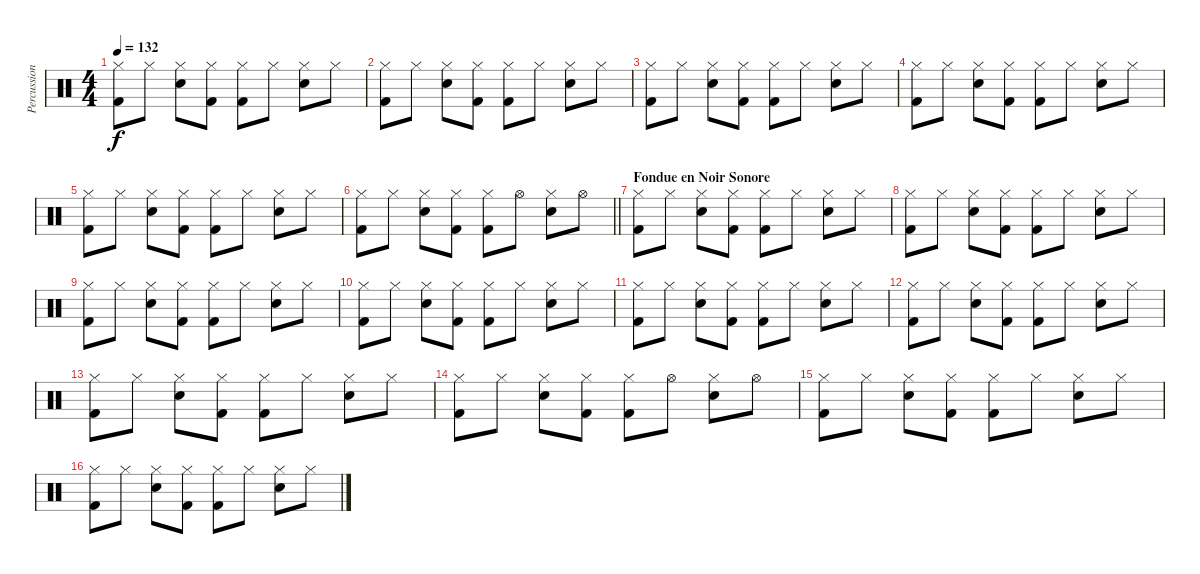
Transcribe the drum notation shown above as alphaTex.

\track ("Percussions" "Percussion") {instrument percussion}
\staff {score}
\articulation defaults
\ts (4 4)
\tempo 132
\clef neutral
\ks c
("Hi-Hat (closed)" "Kick (hit) 2").8{dy f} "Hi-Hat (closed)".8 ("Hi-Hat (closed)" "Snare (hit) 2").8 ("Hi-Hat (closed)" "Kick (hit) 2").8 ("Hi-Hat (closed)" "Kick (hit) 2").8 "Hi-Hat (closed)".8 ("Hi-Hat (closed)" "Snare (hit) 2").8 "Hi-Hat (closed)".8 |
("Hi-Hat (closed)" "Kick (hit) 2").8 "Hi-Hat (closed)".8 ("Hi-Hat (closed)" "Snare (hit) 2").8 ("Hi-Hat (closed)" "Kick (hit) 2").8 ("Hi-Hat (closed)" "Kick (hit) 2").8 "Hi-Hat (closed)".8 ("Hi-Hat (closed)" "Snare (hit) 2").8 "Hi-Hat (closed)".8 |
("Hi-Hat (closed)" "Kick (hit) 2").8 "Hi-Hat (closed)".8 ("Hi-Hat (closed)" "Snare (hit) 2").8 ("Hi-Hat (closed)" "Kick (hit) 2").8 ("Hi-Hat (closed)" "Kick (hit) 2").8 "Hi-Hat (closed)".8 ("Hi-Hat (closed)" "Snare (hit) 2").8 "Hi-Hat (closed)".8 |
("Hi-Hat (closed)" "Kick (hit) 2").8 "Hi-Hat (closed)".8 ("Hi-Hat (closed)" "Snare (hit) 2").8 ("Hi-Hat (closed)" "Kick (hit) 2").8 ("Hi-Hat (closed)" "Kick (hit) 2").8 "Hi-Hat (closed)".8 ("Hi-Hat (closed)" "Snare (hit) 2").8 "Hi-Hat (closed)".8 |
("Hi-Hat (closed)" "Kick (hit) 2").8 "Hi-Hat (closed)".8 ("Hi-Hat (closed)" "Snare (hit) 2").8 ("Hi-Hat (closed)" "Kick (hit) 2").8 ("Hi-Hat (closed)" "Kick (hit) 2").8 "Hi-Hat (closed)".8 ("Hi-Hat (closed)" "Snare (hit) 2").8 "Hi-Hat (closed)".8 |
\barLineRight lightlight
("Hi-Hat (closed)" "Kick (hit) 2").8 "Hi-Hat (closed)".8 ("Hi-Hat (closed)" "Snare (hit) 2").8 ("Hi-Hat (closed)" "Kick (hit) 2").8 ("Hi-Hat (closed)" "Kick (hit) 2").8 "Hi-Hat (open)".8 ("Hi-Hat (closed)" "Snare (hit) 2").8 "Hi-Hat (open)".8 |
\section ("" "Fondue en Noir Sonore")
("Hi-Hat (closed)" "Kick (hit) 2").8{volume 10} "Hi-Hat (closed)".8 ("Hi-Hat (closed)" "Snare (hit) 2").8 ("Hi-Hat (closed)" "Kick (hit) 2").8 ("Hi-Hat (closed)" "Kick (hit) 2").8 "Hi-Hat (closed)".8 ("Hi-Hat (closed)" "Snare (hit) 2").8 "Hi-Hat (closed)".8 |
("Hi-Hat (closed)" "Kick (hit) 2").8 "Hi-Hat (closed)".8 ("Hi-Hat (closed)" "Snare (hit) 2").8 ("Hi-Hat (closed)" "Kick (hit) 2").8 ("Hi-Hat (closed)" "Kick (hit) 2").8 "Hi-Hat (closed)".8 ("Hi-Hat (closed)" "Snare (hit) 2").8 "Hi-Hat (closed)".8 |
("Hi-Hat (closed)" "Kick (hit) 2").8 "Hi-Hat (closed)".8 ("Hi-Hat (closed)" "Snare (hit) 2").8 ("Hi-Hat (closed)" "Kick (hit) 2").8 ("Hi-Hat (closed)" "Kick (hit) 2").8 "Hi-Hat (closed)".8 ("Hi-Hat (closed)" "Snare (hit) 2").8 "Hi-Hat (closed)".8 |
("Hi-Hat (closed)" "Kick (hit) 2").8 "Hi-Hat (closed)".8 ("Hi-Hat (closed)" "Snare (hit) 2").8 ("Hi-Hat (closed)" "Kick (hit) 2").8 ("Hi-Hat (closed)" "Kick (hit) 2").8 "Hi-Hat (closed)".8 ("Hi-Hat (closed)" "Snare (hit) 2").8 "Hi-Hat (closed)".8 |
("Hi-Hat (closed)" "Kick (hit) 2").8{volume 8} "Hi-Hat (closed)".8 ("Hi-Hat (closed)" "Snare (hit) 2").8 ("Hi-Hat (closed)" "Kick (hit) 2").8 ("Hi-Hat (closed)" "Kick (hit) 2").8 "Hi-Hat (closed)".8 ("Hi-Hat (closed)" "Snare (hit) 2").8 "Hi-Hat (closed)".8 |
("Hi-Hat (closed)" "Kick (hit) 2").8 "Hi-Hat (closed)".8 ("Hi-Hat (closed)" "Snare (hit) 2").8 ("Hi-Hat (closed)" "Kick (hit) 2").8 ("Hi-Hat (closed)" "Kick (hit) 2").8 "Hi-Hat (closed)".8 ("Hi-Hat (closed)" "Snare (hit) 2").8 "Hi-Hat (closed)".8 |
("Hi-Hat (closed)" "Kick (hit) 2").8 "Hi-Hat (closed)".8 ("Hi-Hat (closed)" "Snare (hit) 2").8 ("Hi-Hat (closed)" "Kick (hit) 2").8 ("Hi-Hat (closed)" "Kick (hit) 2").8 "Hi-Hat (closed)".8 ("Hi-Hat (closed)" "Snare (hit) 2").8 "Hi-Hat (closed)".8 |
("Hi-Hat (closed)" "Kick (hit) 2").8 "Hi-Hat (closed)".8 ("Hi-Hat (closed)" "Snare (hit) 2").8 ("Hi-Hat (closed)" "Kick (hit) 2").8 ("Hi-Hat (closed)" "Kick (hit) 2").8 "Hi-Hat (open)".8 ("Hi-Hat (closed)" "Snare (hit) 2").8 "Hi-Hat (open)".8 |
("Hi-Hat (closed)" "Kick (hit) 2").8{volume 4} "Hi-Hat (closed)".8 ("Hi-Hat (closed)" "Snare (hit) 2").8 ("Hi-Hat (closed)" "Kick (hit) 2").8 ("Hi-Hat (closed)" "Kick (hit) 2").8 "Hi-Hat (closed)".8 ("Hi-Hat (closed)" "Snare (hit) 2").8 "Hi-Hat (closed)".8 |
("Hi-Hat (closed)" "Kick (hit) 2").8 "Hi-Hat (closed)".8 ("Hi-Hat (closed)" "Snare (hit) 2").8 ("Hi-Hat (closed)" "Kick (hit) 2").8 ("Hi-Hat (closed)" "Kick (hit) 2").8 "Hi-Hat (closed)".8 ("Hi-Hat (closed)" "Snare (hit) 2").8 "Hi-Hat (closed)".8
